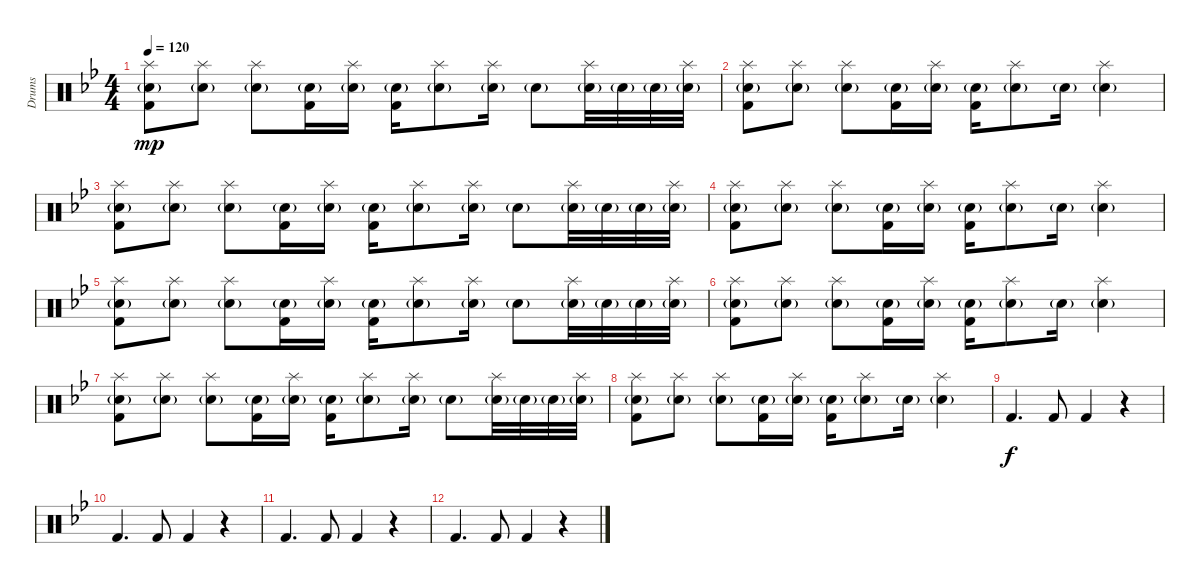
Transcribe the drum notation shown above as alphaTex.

\track ("Drums" "Drums") {instrument percussion}
\staff {score}
\articulation defaults
\ts (4 4)
\tempo 120
\clef neutral
\ks bb
("Splash (hit)" "Electric Snare (hit)"{g} "Kick (hit) 2").8{dy mp} ("Splash (hit)" "Electric Snare (hit)"{g}).8 ("Splash (hit)" "Electric Snare (hit)"{g}).8 ("Electric Snare (hit)"{g} "Kick (hit) 2").16 ("Splash (hit)" "Electric Snare (hit)"{g}).16 ("Electric Snare (hit)"{g} "Kick (hit) 2").16 ("Splash (hit)" "Electric Snare (hit)"{g}).8 ("Splash (hit)" "Electric Snare (hit)"{g}).16 "Electric Snare (hit)"{g}.8 ("Splash (hit)" "Electric Snare (hit)"{g}).32 "Electric Snare (hit)"{g}.32 "Electric Snare (hit)"{g}.32 ("Splash (hit)" "Electric Snare (hit)"{g}).32 |
("Splash (hit)" "Electric Snare (hit)"{g} "Kick (hit) 2").8 ("Splash (hit)" "Electric Snare (hit)"{g}).8 ("Splash (hit)" "Electric Snare (hit)"{g}).8 ("Electric Snare (hit)"{g} "Kick (hit) 2").16 ("Splash (hit)" "Electric Snare (hit)"{g}).16 ("Electric Snare (hit)"{g} "Kick (hit) 2").16 ("Splash (hit)" "Electric Snare (hit)"{g}).8 "Electric Snare (hit)"{g}.16 ("Splash (hit)" "Electric Snare (hit)"{g}).4 |
("Splash (hit)" "Electric Snare (hit)"{g} "Kick (hit) 2").8 ("Splash (hit)" "Electric Snare (hit)"{g}).8 ("Splash (hit)" "Electric Snare (hit)"{g}).8 ("Electric Snare (hit)"{g} "Kick (hit) 2").16 ("Splash (hit)" "Electric Snare (hit)"{g}).16 ("Electric Snare (hit)"{g} "Kick (hit) 2").16 ("Splash (hit)" "Electric Snare (hit)"{g}).8 ("Splash (hit)" "Electric Snare (hit)"{g}).16 "Electric Snare (hit)"{g}.8 ("Splash (hit)" "Electric Snare (hit)"{g}).32 "Electric Snare (hit)"{g}.32 "Electric Snare (hit)"{g}.32 ("Splash (hit)" "Electric Snare (hit)"{g}).32 |
("Splash (hit)" "Electric Snare (hit)"{g} "Kick (hit) 2").8 ("Splash (hit)" "Electric Snare (hit)"{g}).8 ("Splash (hit)" "Electric Snare (hit)"{g}).8 ("Electric Snare (hit)"{g} "Kick (hit) 2").16 ("Splash (hit)" "Electric Snare (hit)"{g}).16 ("Electric Snare (hit)"{g} "Kick (hit) 2").16 ("Splash (hit)" "Electric Snare (hit)"{g}).8 "Electric Snare (hit)"{g}.16 ("Splash (hit)" "Electric Snare (hit)"{g}).4 |
("Splash (hit)" "Electric Snare (hit)"{g} "Kick (hit) 2").8 ("Splash (hit)" "Electric Snare (hit)"{g}).8 ("Splash (hit)" "Electric Snare (hit)"{g}).8 ("Electric Snare (hit)"{g} "Kick (hit) 2").16 ("Splash (hit)" "Electric Snare (hit)"{g}).16 ("Electric Snare (hit)"{g} "Kick (hit) 2").16 ("Splash (hit)" "Electric Snare (hit)"{g}).8 ("Splash (hit)" "Electric Snare (hit)"{g}).16 "Electric Snare (hit)"{g}.8 ("Splash (hit)" "Electric Snare (hit)"{g}).32 "Electric Snare (hit)"{g}.32 "Electric Snare (hit)"{g}.32 ("Splash (hit)" "Electric Snare (hit)"{g}).32 |
("Splash (hit)" "Electric Snare (hit)"{g} "Kick (hit) 2").8 ("Splash (hit)" "Electric Snare (hit)"{g}).8 ("Splash (hit)" "Electric Snare (hit)"{g}).8 ("Electric Snare (hit)"{g} "Kick (hit) 2").16 ("Splash (hit)" "Electric Snare (hit)"{g}).16 ("Electric Snare (hit)"{g} "Kick (hit) 2").16 ("Splash (hit)" "Electric Snare (hit)"{g}).8 "Electric Snare (hit)"{g}.16 ("Splash (hit)" "Electric Snare (hit)"{g}).4 |
("Splash (hit)" "Electric Snare (hit)"{g} "Kick (hit) 2").8 ("Splash (hit)" "Electric Snare (hit)"{g}).8 ("Splash (hit)" "Electric Snare (hit)"{g}).8 ("Electric Snare (hit)"{g} "Kick (hit) 2").16 ("Splash (hit)" "Electric Snare (hit)"{g}).16 ("Electric Snare (hit)"{g} "Kick (hit) 2").16 ("Splash (hit)" "Electric Snare (hit)"{g}).8 ("Splash (hit)" "Electric Snare (hit)"{g}).16 "Electric Snare (hit)"{g}.8 ("Splash (hit)" "Electric Snare (hit)"{g}).32 "Electric Snare (hit)"{g}.32 "Electric Snare (hit)"{g}.32 ("Splash (hit)" "Electric Snare (hit)"{g}).32 |
("Splash (hit)" "Electric Snare (hit)"{g} "Kick (hit) 2").8 ("Splash (hit)" "Electric Snare (hit)"{g}).8 ("Splash (hit)" "Electric Snare (hit)"{g}).8 ("Electric Snare (hit)"{g} "Kick (hit) 2").16 ("Splash (hit)" "Electric Snare (hit)"{g}).16 ("Electric Snare (hit)"{g} "Kick (hit) 2").16 ("Splash (hit)" "Electric Snare (hit)"{g}).8 "Electric Snare (hit)"{g}.16 ("Splash (hit)" "Electric Snare (hit)"{g}).4 |
"Kick (hit) 2".4{d dy f} "Kick (hit) 2".8 "Kick (hit) 2".4 r.4 |
"Kick (hit) 2".4{d} "Kick (hit) 2".8 "Kick (hit) 2".4 r.4 |
"Kick (hit) 2".4{d} "Kick (hit) 2".8 "Kick (hit) 2".4 r.4 |
"Kick (hit) 2".4{d} "Kick (hit) 2".8 "Kick (hit) 2".4 r.4
